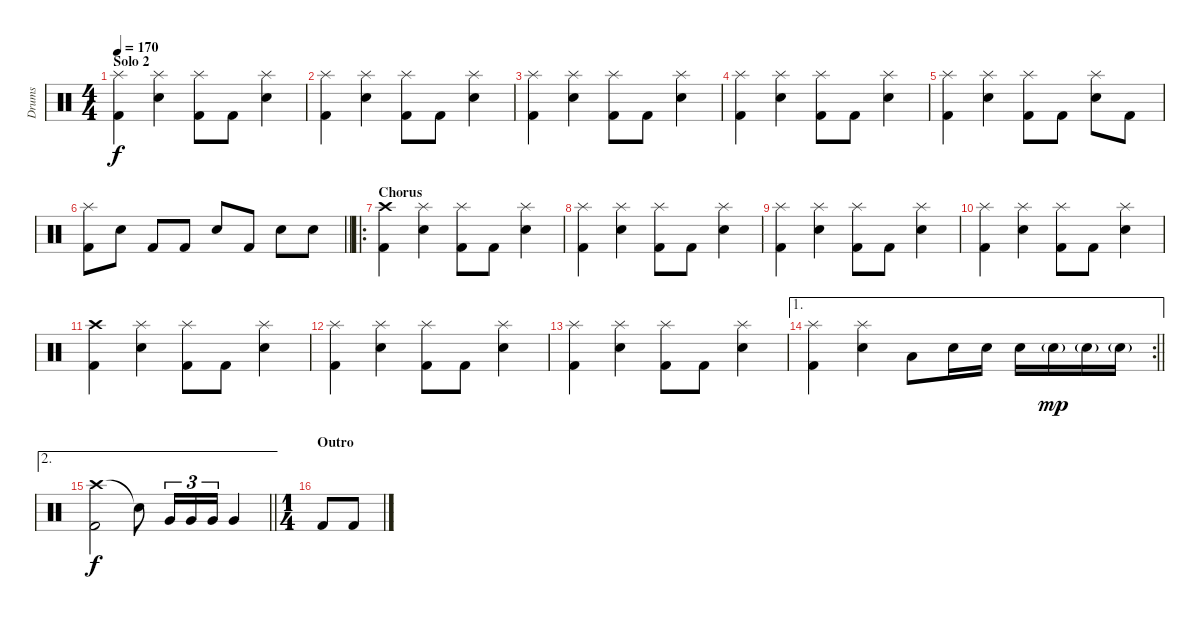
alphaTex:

\track ("Drums" "Drums") {instrument percussion}
\staff {score}
\articulation defaults
\ts (4 4)
\section ("" "Solo 2")
\tempo 170
\clef neutral
\ks aminor
("Splash (hit)" "Kick (hit) 2").4{dy f} ("Splash (hit)" "Snare (hit) 2").4 ("Splash (hit)" "Kick (hit) 2").8 "Kick (hit) 2".8 ("Splash (hit)" "Snare (hit) 2").4 |
("Splash (hit)" "Kick (hit) 2").4 ("Splash (hit)" "Snare (hit) 2").4 ("Splash (hit)" "Kick (hit) 2").8 "Kick (hit) 2".8 ("Splash (hit)" "Snare (hit) 2").4 |
("Splash (hit)" "Kick (hit) 2").4 ("Splash (hit)" "Snare (hit) 2").4 ("Splash (hit)" "Kick (hit) 2").8 "Kick (hit) 2".8 ("Splash (hit)" "Snare (hit) 2").4 |
("Splash (hit)" "Kick (hit) 2").4 ("Splash (hit)" "Snare (hit) 2").4 ("Splash (hit)" "Kick (hit) 2").8 "Kick (hit) 2".8 ("Splash (hit)" "Snare (hit) 2").4 |
("Splash (hit)" "Kick (hit) 2").4 ("Splash (hit)" "Snare (hit) 2").4 ("Splash (hit)" "Kick (hit) 2").8 "Kick (hit) 2".8 ("Splash (hit)" "Snare (hit) 2").8 "Kick (hit) 2".8 |
\barLineRight lightlight
("Splash (hit)" "Kick (hit) 2").8 "Snare (hit) 2".8 "Kick (hit) 2".8 "Kick (hit) 2".8 "Snare (hit) 2".8 "Kick (hit) 2".8 "Snare (hit) 2".8 "Snare (hit) 2".8 |
\ro
\section ("" "Chorus")
("Crash high (hit)" "Kick (hit) 2").4 ("Splash (hit)" "Snare (hit) 2").4 ("Splash (hit)" "Kick (hit) 2").8 "Kick (hit) 2".8 ("Splash (hit)" "Snare (hit) 2").4 |
("Splash (hit)" "Kick (hit) 2").4 ("Splash (hit)" "Snare (hit) 2").4 ("Splash (hit)" "Kick (hit) 2").8 "Kick (hit) 2".8 ("Splash (hit)" "Snare (hit) 2").4 |
("Splash (hit)" "Kick (hit) 2").4 ("Splash (hit)" "Snare (hit) 2").4 ("Splash (hit)" "Kick (hit) 2").8 "Kick (hit) 2".8 ("Splash (hit)" "Snare (hit) 2").4 |
("Splash (hit)" "Kick (hit) 2").4 ("Splash (hit)" "Snare (hit) 2").4 ("Splash (hit)" "Kick (hit) 2").8 "Kick (hit) 2".8 ("Splash (hit)" "Snare (hit) 2").4 |
("Crash high (hit)" "Kick (hit) 2").4 ("Splash (hit)" "Snare (hit) 2").4 ("Splash (hit)" "Kick (hit) 2").8 "Kick (hit) 2".8 ("Splash (hit)" "Snare (hit) 2").4 |
("Splash (hit)" "Kick (hit) 2").4 ("Splash (hit)" "Snare (hit) 2").4 ("Splash (hit)" "Kick (hit) 2").8 "Kick (hit) 2".8 ("Splash (hit)" "Snare (hit) 2").4 |
("Splash (hit)" "Kick (hit) 2").4 ("Splash (hit)" "Snare (hit) 2").4 ("Splash (hit)" "Kick (hit) 2").8 "Kick (hit) 2".8 ("Splash (hit)" "Snare (hit) 2").4 |
\ae 1
\rc 2
\barLineRight lightlight
("Splash (hit)" "Kick (hit) 2").4 ("Splash (hit)" "Snare (hit) 2").4 "Low Tom (hit)".8 "Electric Snare (hit)".16 "Electric Snare (hit)".16 "Electric Snare (hit)".16 "Electric Snare (hit)"{g}.16{dy mp} "Electric Snare (hit)"{g}.16 "Electric Snare (hit)"{g}.16 |
\ae 2
\barLineRight lightlight
("Crash high (hit)" "Kick (hit) 2").2{dy f} "Snare (hit)"{t}.8 "Very Low Tom (hit)".16{tu (3 2)} "Very Low Tom (hit)".16{tu (3 2)} "Very Low Tom (hit)".16{tu (3 2)} "Very Low Tom (hit)".4 |
\ts (1 4)
\section ("" "Outro")
"Kick (hit) 2".8 "Kick (hit) 2".8
